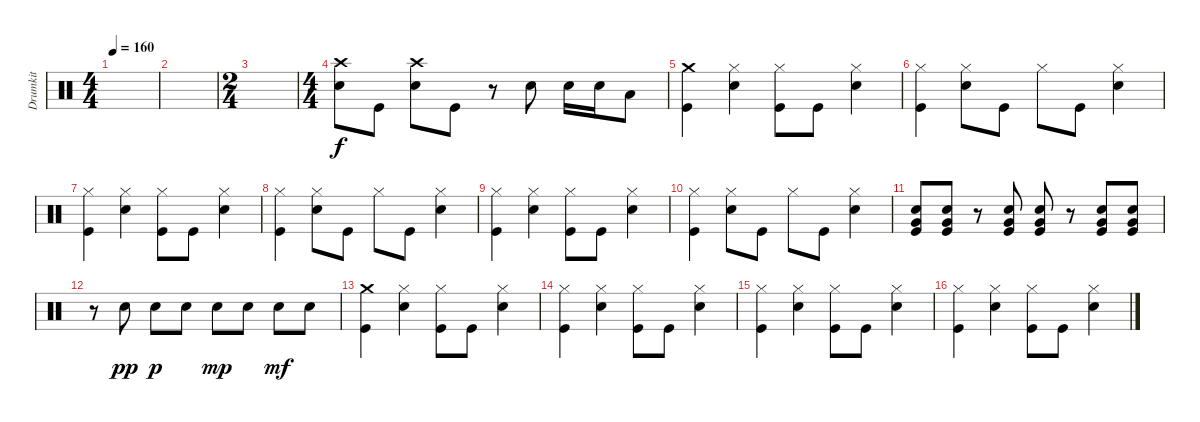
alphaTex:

\track ("Drumkit" "Drumkit") {instrument percussion}
\staff {score}
\articulation defaults
\ts (4 4)
\tempo 160
\clef neutral
\ks c
|
|
\ts (2 4)
|
\ts (4 4)
("Crash high (hit)" "Snare (hit) 2").8 "Kick (hit)".8 ("Snare (hit) 2" "Crash high (hit)").8 "Kick (hit)".8 r.8 "Snare (hit) 2".8 "Snare (hit) 2".16 "Snare (hit) 2".16 "Low Tom (hit)".8 |
("Kick (hit)" "Crash medium (hit)").4 ("Hi-Hat (closed)" "Snare (hit) 2").4 ("Kick (hit)" "Hi-Hat (closed)").8 "Kick (hit)".8 ("Snare (hit) 2" "Hi-Hat (closed)").4 |
("Kick (hit)" "Hi-Hat (closed)").4 ("Snare (hit) 2" "Hi-Hat (closed)").8 "Kick (hit)".8 "Hi-Hat (closed)".8 "Kick (hit)".8 ("Snare (hit) 2" "Hi-Hat (closed)").4 |
("Kick (hit)" "Hi-Hat (closed)").4 ("Hi-Hat (closed)" "Snare (hit) 2").4 ("Kick (hit)" "Hi-Hat (closed)").8 "Kick (hit)".8 ("Snare (hit) 2" "Hi-Hat (closed)").4 |
("Kick (hit)" "Hi-Hat (closed)").4 ("Snare (hit) 2" "Hi-Hat (closed)").8 "Kick (hit)".8 "Hi-Hat (closed)".8 "Kick (hit)".8 ("Snare (hit) 2" "Hi-Hat (closed)").4 |
("Kick (hit)" "Hi-Hat (closed)").4 ("Hi-Hat (closed)" "Snare (hit) 2").4 ("Kick (hit)" "Hi-Hat (closed)").8 "Kick (hit)".8 ("Snare (hit) 2" "Hi-Hat (closed)").4 |
("Kick (hit)" "Hi-Hat (closed)").4 ("Snare (hit) 2" "Hi-Hat (closed)").8 "Kick (hit)".8 "Hi-Hat (closed)".8 "Kick (hit)".8 ("Snare (hit) 2" "Hi-Hat (closed)").4 |
("Kick (hit)" "Very Low Tom (hit)" "Snare (hit) 2").8 ("Kick (hit)" "Very Low Tom (hit)" "Snare (hit) 2").8 r.8 ("Kick (hit)" "Very Low Tom (hit)" "Snare (hit) 2").8 ("Kick (hit)" "Very Low Tom (hit)" "Snare (hit) 2").8 r.8 ("Kick (hit)" "Very Low Tom (hit)" "Snare (hit) 2").8 ("Kick (hit)" "Very Low Tom (hit)" "Snare (hit) 2").8 |
r.8 "Snare (hit) 2".8{dy pp} "Snare (hit) 2".8{dy p} "Snare (hit) 2".8 "Snare (hit) 2".8{dy mp} "Snare (hit) 2".8 "Snare (hit) 2".8{dy mf} "Snare (hit) 2".8 |
("Kick (hit)" "Crash medium (hit)").4 ("Hi-Hat (closed)" "Snare (hit) 2").4 ("Kick (hit)" "Hi-Hat (closed)").8 "Kick (hit)".8 ("Snare (hit) 2" "Hi-Hat (closed)").4 |
("Kick (hit)" "Hi-Hat (closed)").4 ("Hi-Hat (closed)" "Snare (hit) 2").4 ("Kick (hit)" "Hi-Hat (closed)").8 "Kick (hit)".8 ("Snare (hit) 2" "Hi-Hat (closed)").4 |
("Kick (hit)" "Hi-Hat (closed)").4 ("Hi-Hat (closed)" "Snare (hit) 2").4 ("Kick (hit)" "Hi-Hat (closed)").8 "Kick (hit)".8 ("Snare (hit) 2" "Hi-Hat (closed)").4 |
("Kick (hit)" "Hi-Hat (closed)").4 ("Hi-Hat (closed)" "Snare (hit) 2").4 ("Kick (hit)" "Hi-Hat (closed)").8 "Kick (hit)".8 ("Snare (hit) 2" "Hi-Hat (closed)").4
